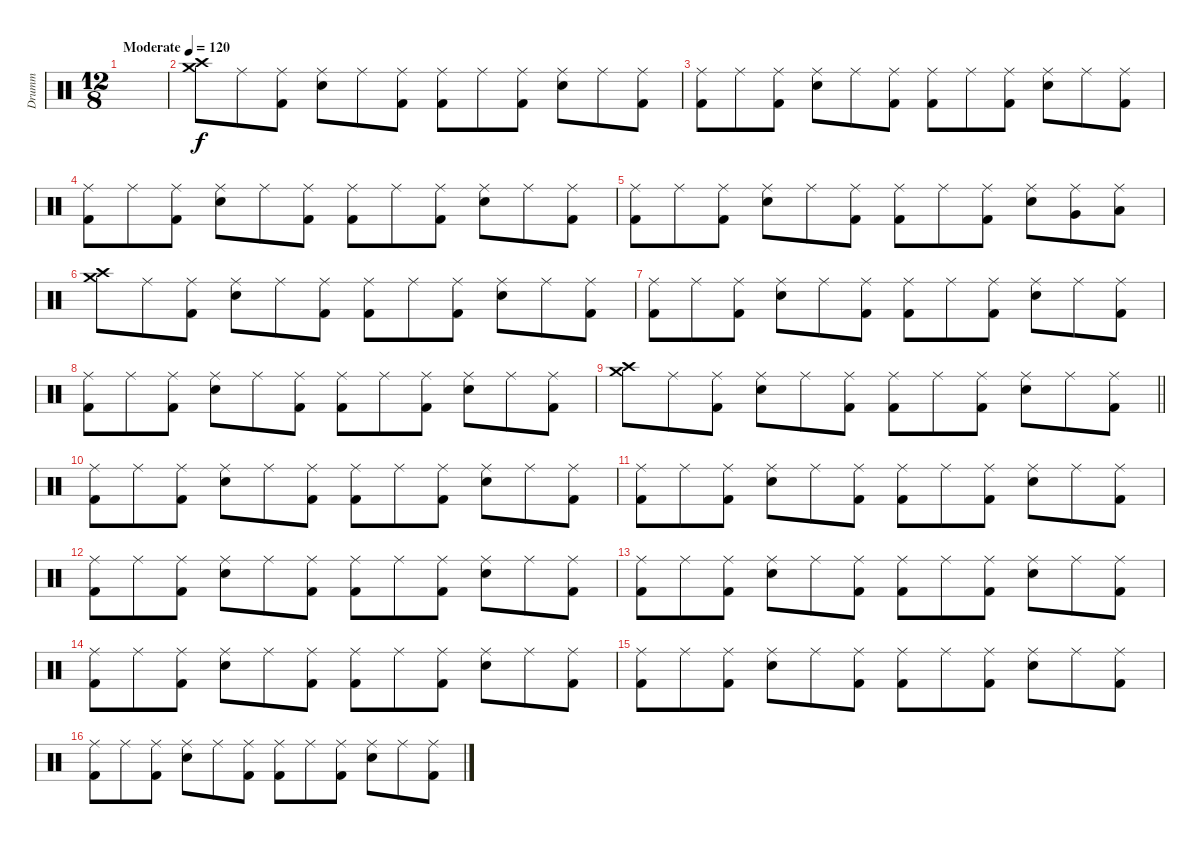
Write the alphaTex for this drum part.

\track ("Drumm" "Drumm") {instrument percussion}
\staff {score}
\articulation defaults
\ts (12 8)
\tempo (120 "Moderate")
\clef neutral
\ks c
|
("Crash high (hit)" "Crash medium (hit)").8 "Ride (middle)".8 ("Kick (hit) 2" "Ride (middle)").8 ("Electric Snare (hit)" "Ride (middle)").8 "Ride (middle)".8 ("Kick (hit) 2" "Ride (middle)").8 ("Kick (hit) 2" "Ride (middle)").8 "Ride (middle)".8 ("Kick (hit) 2" "Ride (middle)").8 ("Electric Snare (hit)" "Ride (middle)").8 "Ride (middle)".8 ("Kick (hit) 2" "Ride (middle)").8 |
("Kick (hit) 2" "Ride (middle)").8 "Ride (middle)".8 ("Kick (hit) 2" "Ride (middle)").8 ("Electric Snare (hit)" "Ride (middle)").8 "Ride (middle)".8 ("Kick (hit) 2" "Ride (middle)").8 ("Kick (hit) 2" "Ride (middle)").8 "Ride (middle)".8 ("Kick (hit) 2" "Ride (middle)").8 ("Electric Snare (hit)" "Ride (middle)").8 "Ride (middle)".8 ("Kick (hit) 2" "Ride (middle)").8 |
("Kick (hit) 2" "Ride (middle)").8 "Ride (middle)".8 ("Kick (hit) 2" "Ride (middle)").8 ("Electric Snare (hit)" "Ride (middle)").8 "Ride (middle)".8 ("Kick (hit) 2" "Ride (middle)").8 ("Kick (hit) 2" "Ride (middle)").8 "Ride (middle)".8 ("Kick (hit) 2" "Ride (middle)").8 ("Electric Snare (hit)" "Ride (middle)").8 "Ride (middle)".8 ("Kick (hit) 2" "Ride (middle)").8 |
("Kick (hit) 2" "Ride (middle)").8 "Ride (middle)".8 ("Kick (hit) 2" "Ride (middle)").8 ("Electric Snare (hit)" "Ride (middle)").8 "Ride (middle)".8 ("Kick (hit) 2" "Ride (middle)").8 ("Kick (hit) 2" "Ride (middle)").8 "Ride (middle)".8 ("Kick (hit) 2" "Ride (middle)").8 ("Electric Snare (hit)" "Ride (middle)").8 ("Very Low Tom (hit)" "Ride (middle)").8 ("Low Floor Tom (hit)" "Ride (middle)").8 |
("Crash high (hit)" "Crash medium (hit)").8 "Ride (middle)".8 ("Kick (hit) 2" "Ride (middle)").8 ("Electric Snare (hit)" "Ride (middle)").8 "Ride (middle)".8 ("Kick (hit) 2" "Ride (middle)").8 ("Kick (hit) 2" "Ride (middle)").8 "Ride (middle)".8 ("Kick (hit) 2" "Ride (middle)").8 ("Electric Snare (hit)" "Ride (middle)").8 "Ride (middle)".8 ("Kick (hit) 2" "Ride (middle)").8 |
("Kick (hit) 2" "Ride (middle)").8 "Ride (middle)".8 ("Kick (hit) 2" "Ride (middle)").8 ("Electric Snare (hit)" "Ride (middle)").8 "Ride (middle)".8 ("Kick (hit) 2" "Ride (middle)").8 ("Kick (hit) 2" "Ride (middle)").8 "Ride (middle)".8 ("Kick (hit) 2" "Ride (middle)").8 ("Electric Snare (hit)" "Ride (middle)").8 "Ride (middle)".8 ("Kick (hit) 2" "Ride (middle)").8 |
("Kick (hit) 2" "Ride (middle)").8 "Ride (middle)".8 ("Kick (hit) 2" "Ride (middle)").8 ("Electric Snare (hit)" "Ride (middle)").8 "Ride (middle)".8 ("Kick (hit) 2" "Ride (middle)").8 ("Kick (hit) 2" "Ride (middle)").8 "Ride (middle)".8 ("Kick (hit) 2" "Ride (middle)").8 ("Electric Snare (hit)" "Ride (middle)").8 "Ride (middle)".8 ("Kick (hit) 2" "Ride (middle)").8 |
\barLineRight lightlight
("Crash high (hit)" "Crash medium (hit)").8 "Ride (middle)".8 ("Kick (hit) 2" "Ride (middle)").8 ("Electric Snare (hit)" "Ride (middle)").8 "Ride (middle)".8 ("Kick (hit) 2" "Ride (middle)").8 ("Kick (hit) 2" "Ride (middle)").8 "Ride (middle)".8 ("Kick (hit) 2" "Ride (middle)").8 ("Electric Snare (hit)" "Ride (middle)").8 "Ride (middle)".8 ("Kick (hit) 2" "Ride (middle)").8 |
("Kick (hit) 2" "Ride (middle)").8 "Ride (middle)".8 ("Kick (hit) 2" "Ride (middle)").8 ("Electric Snare (hit)" "Ride (middle)").8 "Ride (middle)".8 ("Kick (hit) 2" "Ride (middle)").8 ("Kick (hit) 2" "Ride (middle)").8 "Ride (middle)".8 ("Kick (hit) 2" "Ride (middle)").8 ("Electric Snare (hit)" "Ride (middle)").8 "Ride (middle)".8 ("Kick (hit) 2" "Ride (middle)").8 |
("Kick (hit) 2" "Ride (middle)").8 "Ride (middle)".8 ("Kick (hit) 2" "Ride (middle)").8 ("Electric Snare (hit)" "Ride (middle)").8 "Ride (middle)".8 ("Kick (hit) 2" "Ride (middle)").8 ("Kick (hit) 2" "Ride (middle)").8 "Ride (middle)".8 ("Kick (hit) 2" "Ride (middle)").8 ("Electric Snare (hit)" "Ride (middle)").8 "Ride (middle)".8 ("Kick (hit) 2" "Ride (middle)").8 |
("Kick (hit) 2" "Ride (middle)").8 "Ride (middle)".8 ("Kick (hit) 2" "Ride (middle)").8 ("Electric Snare (hit)" "Ride (middle)").8 "Ride (middle)".8 ("Kick (hit) 2" "Ride (middle)").8 ("Kick (hit) 2" "Ride (middle)").8 "Ride (middle)".8 ("Kick (hit) 2" "Ride (middle)").8 ("Electric Snare (hit)" "Ride (middle)").8 "Ride (middle)".8 ("Kick (hit) 2" "Ride (middle)").8 |
("Kick (hit) 2" "Ride (middle)").8 "Ride (middle)".8 ("Kick (hit) 2" "Ride (middle)").8 ("Electric Snare (hit)" "Ride (middle)").8 "Ride (middle)".8 ("Kick (hit) 2" "Ride (middle)").8 ("Kick (hit) 2" "Ride (middle)").8 "Ride (middle)".8 ("Kick (hit) 2" "Ride (middle)").8 ("Electric Snare (hit)" "Ride (middle)").8 "Ride (middle)".8 ("Kick (hit) 2" "Ride (middle)").8 |
("Kick (hit) 2" "Ride (middle)").8 "Ride (middle)".8 ("Kick (hit) 2" "Ride (middle)").8 ("Electric Snare (hit)" "Ride (middle)").8 "Ride (middle)".8 ("Kick (hit) 2" "Ride (middle)").8 ("Kick (hit) 2" "Ride (middle)").8 "Ride (middle)".8 ("Kick (hit) 2" "Ride (middle)").8 ("Electric Snare (hit)" "Ride (middle)").8 "Ride (middle)".8 ("Kick (hit) 2" "Ride (middle)").8 |
("Kick (hit) 2" "Ride (middle)").8 "Ride (middle)".8 ("Kick (hit) 2" "Ride (middle)").8 ("Electric Snare (hit)" "Ride (middle)").8 "Ride (middle)".8 ("Kick (hit) 2" "Ride (middle)").8 ("Kick (hit) 2" "Ride (middle)").8 "Ride (middle)".8 ("Kick (hit) 2" "Ride (middle)").8 ("Electric Snare (hit)" "Ride (middle)").8 "Ride (middle)".8 ("Kick (hit) 2" "Ride (middle)").8 |
("Kick (hit) 2" "Ride (middle)").8 "Ride (middle)".8 ("Kick (hit) 2" "Ride (middle)").8 ("Electric Snare (hit)" "Ride (middle)").8 "Ride (middle)".8 ("Kick (hit) 2" "Ride (middle)").8 ("Kick (hit) 2" "Ride (middle)").8 "Ride (middle)".8 ("Kick (hit) 2" "Ride (middle)").8 ("Electric Snare (hit)" "Ride (middle)").8 "Ride (middle)".8 ("Kick (hit) 2" "Ride (middle)").8
